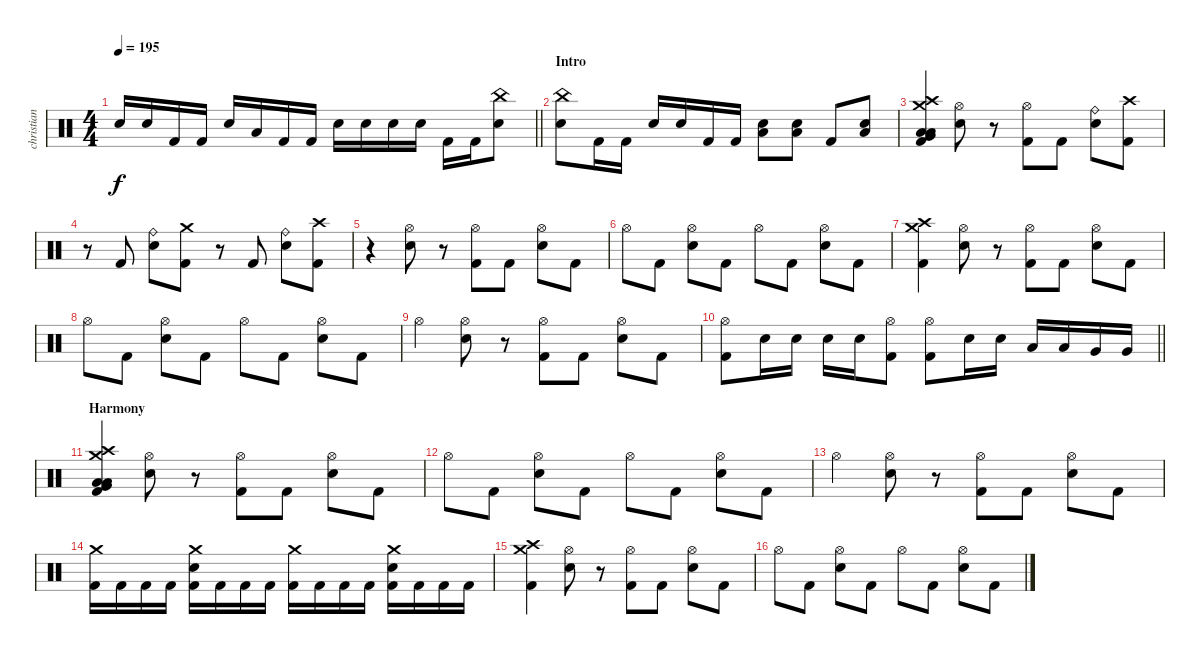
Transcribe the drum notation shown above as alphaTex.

\track ("christian" "christian") {instrument percussion}
\staff {score}
\articulation defaults
\ts (4 4)
\tempo 195
\clef neutral
\barLineRight lightlight
\ks c "Electric Snare (hit)".16{dy f} "Electric Snare (hit)".16 "Kick (hit) 2".16 "Kick (hit) 2".16 "Electric Snare (hit)".16 "Low Tom (hit)".16 "Kick (hit) 2".16 "Kick (hit) 2".16 "Electric Snare (hit)".16 "Electric Snare (hit)".16 "Electric Snare (hit)".16 "Electric Snare (hit)".16 "Kick (hit) 2".16 "Kick (hit) 2".16
("China (hit)" "Electric Snare (hit)").8 |
\section ("" "Intro")
("China (hit)" "Electric Snare (hit)").8 "Kick (hit) 2".16 "Kick (hit) 2".16 "Electric Snare (hit)".16 "Electric Snare (hit)".16 "Kick (hit) 2".16 "Kick (hit) 2".16 ("Low Floor Tom (hit)" "Electric Snare (hit)").8 ("Low Floor Tom (hit)" "Electric Snare (hit)").8 "Kick (hit) 2".8 ("Low Floor Tom (hit)" "Electric Snare (hit)").8 |
("Crash high (hit)" "Crash medium (hit)" "Very Low Tom (hit)" "Low Tom (hit)" "Low Floor Tom (hit)" "Kick (hit) 2").4 ("Hi-Hat (open)" "Electric Snare (hit)").8 r.8 ("Hi-Hat (open)" "Kick (hit) 2").8 "Kick (hit) 2".8 ("Ride (bell)" "Electric Snare (hit)").8 ("Crash high (hit)" "Kick (hit) 2").8 |
r.8 "Kick (hit) 2".8 ("Ride (bell)" "Electric Snare (hit)").8 ("Crash medium (hit)" "Kick (hit) 2").8 r.8 "Kick (hit) 2".8 ("Ride (bell)" "Electric Snare (hit)").8 ("Crash high (hit)" "Kick (hit) 2").8 |
r.4 ("Hi-Hat (open)" "Electric Snare (hit)").8 r.8 ("Hi-Hat (open)" "Kick (hit) 2").8 "Kick (hit) 2".8 ("Hi-Hat (open)" "Electric Snare (hit)").8 "Kick (hit) 2".8 |
"Hi-Hat (open)".8 "Kick (hit) 2".8 ("Hi-Hat (open)" "Electric Snare (hit)").8 "Kick (hit) 2".8 "Hi-Hat (open)".8 "Kick (hit) 2".8 ("Hi-Hat (open)" "Electric Snare (hit)").8 "Kick (hit) 2".8 |
("Crash high (hit)" "Crash medium (hit)" "Kick (hit) 2").4 ("Hi-Hat (open)" "Electric Snare (hit)").8 r.8 ("Hi-Hat (open)" "Kick (hit) 2").8 "Kick (hit) 2".8 ("Hi-Hat (open)" "Electric Snare (hit)").8 "Kick (hit) 2".8 |
"Hi-Hat (open)".8 "Kick (hit) 2".8 ("Hi-Hat (open)" "Electric Snare (hit)").8 "Kick (hit) 2".8 "Hi-Hat (open)".8 "Kick (hit) 2".8 ("Hi-Hat (open)" "Electric Snare (hit)").8 "Kick (hit) 2".8 |
"Hi-Hat (open)".4 ("Hi-Hat (open)" "Electric Snare (hit)").8 r.8 ("Hi-Hat (open)" "Kick (hit) 2").8 "Kick (hit) 2".8 ("Hi-Hat (open)" "Electric Snare (hit)").8 "Kick (hit) 2".8 |
\barLineRight lightlight
("Hi-Hat (open)" "Kick (hit) 2").8 "Electric Snare (hit)".16 "Electric Snare (hit)".16 "Electric Snare (hit)".16 "Electric Snare (hit)".16 ("Hi-Hat (open)" "Kick (hit) 2").8 ("Hi-Hat (open)" "Kick (hit) 2").8 "Electric Snare (hit)".16 "Electric Snare (hit)".16 "Low Tom (hit)".16 "Low Tom (hit)".16 "Very Low Tom (hit)".16 "Very Low Tom (hit)".16 |
\section ("" "Harmony")
("Crash high (hit)" "Crash medium (hit)" "Low Tom (hit)" "Very Low Tom (hit)" "Low Floor Tom (hit)" "Kick (hit) 2").4 ("Hi-Hat (open)" "Electric Snare (hit)").8 r.8 ("Hi-Hat (open)" "Kick (hit) 2").8 "Kick (hit) 2".8 ("Hi-Hat (open)" "Electric Snare (hit)").8 "Kick (hit) 2".8 |
"Hi-Hat (open)".8 "Kick (hit) 2".8 ("Hi-Hat (open)" "Electric Snare (hit)").8 "Kick (hit) 2".8 "Hi-Hat (open)".8 "Kick (hit) 2".8 ("Hi-Hat (open)" "Electric Snare (hit)").8 "Kick (hit) 2".8 |
"Hi-Hat (open)".4 ("Hi-Hat (open)" "Electric Snare (hit)").8 r.8 ("Hi-Hat (open)" "Kick (hit) 2").8 "Kick (hit) 2".8 ("Hi-Hat (open)" "Electric Snare (hit)").8 "Kick (hit) 2".8 |
("Crash medium (hit)" "Kick (hit) 2").16 "Kick (hit) 2".16 "Kick (hit) 2".16 "Kick (hit) 2".16 ("Crash medium (hit)" "Electric Snare (hit)" "Kick (hit) 2").16 "Kick (hit) 2".16 "Kick (hit) 2".16 "Kick (hit) 2".16 ("Crash medium (hit)" "Kick (hit) 2").16 "Kick (hit) 2".16 "Kick (hit) 2".16 "Kick (hit) 2".16 ("Crash medium (hit)" "Electric Snare (hit)" "Kick (hit) 2").16 "Kick (hit) 2".16 "Kick (hit) 2".16 "Kick (hit) 2".16 |
("Crash high (hit)" "Crash medium (hit)" "Kick (hit) 2").4 ("Hi-Hat (open)" "Electric Snare (hit)").8 r.8 ("Hi-Hat (open)" "Kick (hit) 2").8 "Kick (hit) 2".8 ("Hi-Hat (open)" "Electric Snare (hit)").8 "Kick (hit) 2".8 |
"Hi-Hat (open)".8 "Kick (hit) 2".8 ("Hi-Hat (open)" "Electric Snare (hit)").8 "Kick (hit) 2".8 "Hi-Hat (open)".8 "Kick (hit) 2".8 ("Hi-Hat (open)" "Electric Snare (hit)").8 "Kick (hit) 2".8
